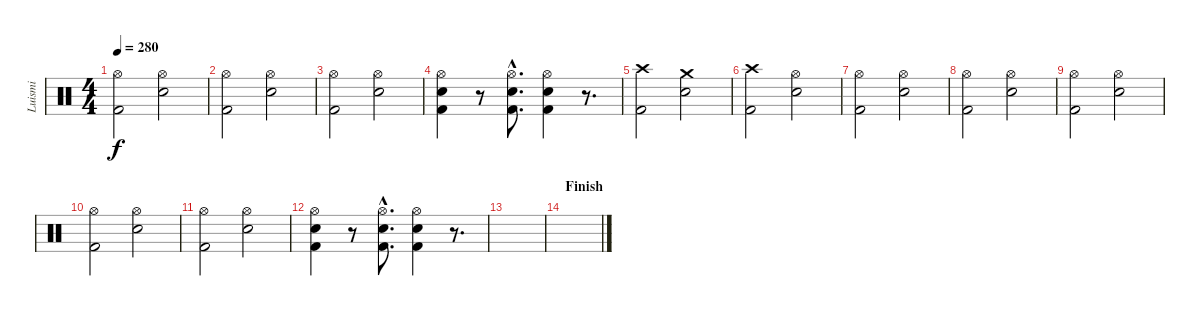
\track ("Luismi" "Luismi") {instrument percussion}
\staff {score}
\articulation defaults
\ts (4 4)
\tempo 280
\clef neutral
\ks c
("Hi-Hat (open)" "Kick (hit) 2").2{dy f} ("Hi-Hat (open)" "Snare (hit) 2").2 |
("Hi-Hat (open)" "Kick (hit) 2").2 ("Hi-Hat (open)" "Snare (hit) 2").2 |
("Hi-Hat (open)" "Kick (hit) 2").2 ("Hi-Hat (open)" "Snare (hit) 2").2 |
("Hi-Hat (open)" "Snare (hit) 2" "Kick (hit) 2").4 r.8 ("Hi-Hat (open)"{hac} "Snare (hit) 2"{hac} "Kick (hit) 2"{hac}).8{d} ("Hi-Hat (open)" "Snare (hit) 2" "Kick (hit) 2").4 r.8{d} |
("Crash high (hit)" "Kick (hit) 2").2 ("Crash medium (hit)" "Snare (hit) 2").2 |
("Crash high (hit)" "Kick (hit) 2").2 ("Hi-Hat (open)" "Snare (hit) 2").2 |
("Hi-Hat (open)" "Kick (hit) 2").2 ("Hi-Hat (open)" "Snare (hit) 2").2 |
("Hi-Hat (open)" "Kick (hit) 2").2 ("Hi-Hat (open)" "Snare (hit) 2").2 |
("Hi-Hat (open)" "Kick (hit) 2").2 ("Hi-Hat (open)" "Snare (hit) 2").2 |
("Hi-Hat (open)" "Kick (hit) 2").2 ("Hi-Hat (open)" "Snare (hit) 2").2 |
("Hi-Hat (open)" "Kick (hit) 2").2 ("Hi-Hat (open)" "Snare (hit) 2").2 |
("Hi-Hat (open)" "Snare (hit) 2" "Kick (hit) 2").4 r.8 ("Hi-Hat (open)"{hac} "Snare (hit) 2"{hac} "Kick (hit) 2"{hac}).8{d} ("Hi-Hat (open)" "Snare (hit) 2" "Kick (hit) 2").4 r.8{d} |
|
\section ("" "Finish")
